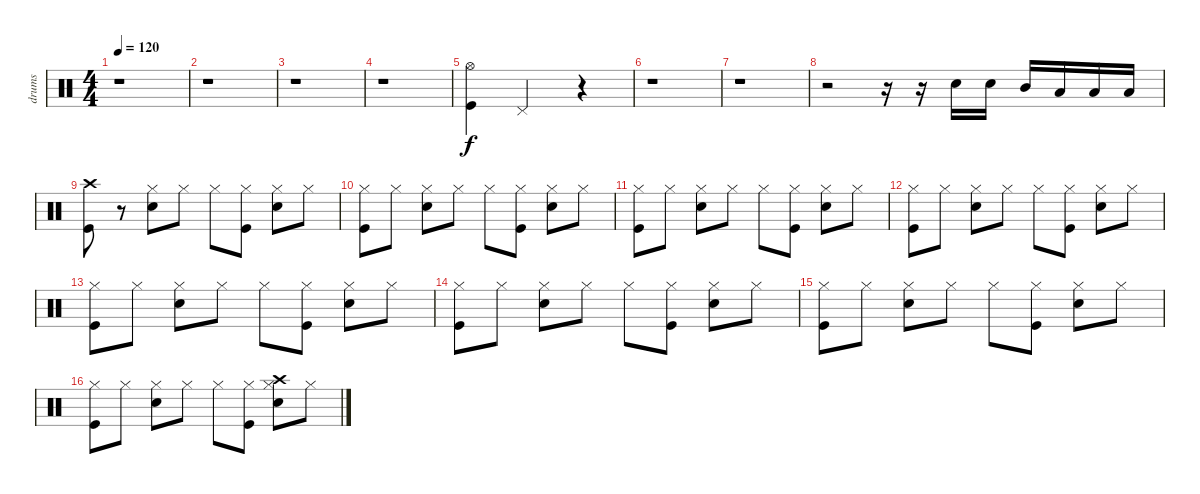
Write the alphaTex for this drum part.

\track ("drums" "drums") {instrument percussion}
\staff {score}
\articulation defaults
\ts (4 4)
\tempo 120
\clef neutral
\ks c
r.1{dy f} |
r.1 |
r.1 |
r.1 |
("Kick (hit)" "Hi-Hat (open)").4 "Pedal Hi-Hat (hit)".2 r.4 |
r.1 |
r.1 |
r.2 r.16 r.16 "Snare (hit) 2".16 "Snare (hit) 2".16 "Mid Tom (hit)".16 "Low Tom (hit)".16 "Low Floor Tom (hit)".16 "Low Floor Tom (hit)".16 |
("Kick (hit)" "Crash high (hit)").8 r.8 ("Snare (hit) 2" "Hi-Hat (closed)").8 "Hi-Hat (closed)".8 "Hi-Hat (closed)".8 ("Kick (hit)" "Hi-Hat (closed)").8 ("Snare (hit) 2" "Hi-Hat (closed)").8 "Hi-Hat (closed)".8 |
("Kick (hit)" "Hi-Hat (closed)").8 "Hi-Hat (closed)".8 ("Snare (hit) 2" "Hi-Hat (closed)").8 "Hi-Hat (closed)".8 "Hi-Hat (closed)".8 ("Kick (hit)" "Hi-Hat (closed)").8 ("Snare (hit) 2" "Hi-Hat (closed)").8 "Hi-Hat (closed)".8 |
("Kick (hit)" "Hi-Hat (closed)").8 "Hi-Hat (closed)".8 ("Snare (hit) 2" "Hi-Hat (closed)").8 "Hi-Hat (closed)".8 "Hi-Hat (closed)".8 ("Kick (hit)" "Hi-Hat (closed)").8 ("Snare (hit) 2" "Hi-Hat (closed)").8 "Hi-Hat (closed)".8 |
("Kick (hit)" "Hi-Hat (closed)").8 "Hi-Hat (closed)".8 ("Snare (hit) 2" "Hi-Hat (closed)").8 "Hi-Hat (closed)".8 "Hi-Hat (closed)".8 ("Kick (hit)" "Hi-Hat (closed)").8 ("Snare (hit) 2" "Hi-Hat (closed)").8 "Hi-Hat (closed)".8 |
("Kick (hit)" "Hi-Hat (closed)").8 "Hi-Hat (closed)".8 ("Snare (hit) 2" "Hi-Hat (closed)").8 "Hi-Hat (closed)".8 "Hi-Hat (closed)".8 ("Kick (hit)" "Hi-Hat (closed)").8 ("Snare (hit) 2" "Hi-Hat (closed)").8 "Hi-Hat (closed)".8 |
("Kick (hit)" "Hi-Hat (closed)").8 "Hi-Hat (closed)".8 ("Snare (hit) 2" "Hi-Hat (closed)").8 "Hi-Hat (closed)".8 "Hi-Hat (closed)".8 ("Kick (hit)" "Hi-Hat (closed)").8 ("Snare (hit) 2" "Hi-Hat (closed)").8 "Hi-Hat (closed)".8 |
("Kick (hit)" "Hi-Hat (closed)").8 "Hi-Hat (closed)".8 ("Snare (hit) 2" "Hi-Hat (closed)").8 "Hi-Hat (closed)".8 "Hi-Hat (closed)".8 ("Kick (hit)" "Hi-Hat (closed)").8 ("Snare (hit) 2" "Hi-Hat (closed)").8 "Hi-Hat (closed)".8 |
("Kick (hit)" "Hi-Hat (closed)").8 "Hi-Hat (closed)".8 ("Snare (hit) 2" "Hi-Hat (closed)").8 "Hi-Hat (closed)".8 "Hi-Hat (closed)".8 ("Kick (hit)" "Hi-Hat (closed)").8 ("Snare (hit) 2" "Crash high (hit)" "Hi-Hat (closed)").8 "Hi-Hat (closed)".8
